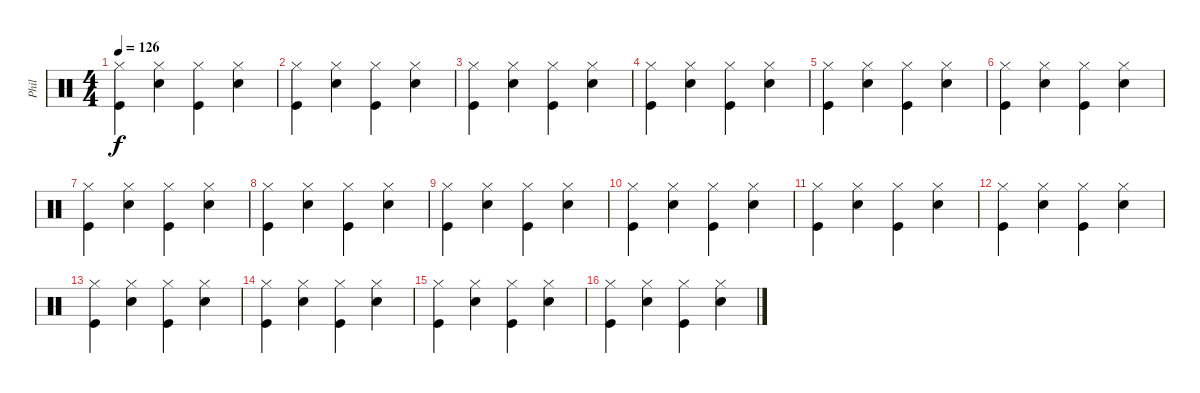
\track ("Phil" "Phil") {instrument percussion}
\staff {score}
\articulation defaults
\ts (4 4)
\tempo 126
\clef neutral
\ks c
("Hi-Hat (closed)" "Kick (hit)").4{dy f} ("Hi-Hat (closed)" "Snare (hit) 2").4 ("Hi-Hat (closed)" "Kick (hit)").4 ("Hi-Hat (closed)" "Snare (hit) 2").4 |
("Hi-Hat (closed)" "Kick (hit)").4 ("Hi-Hat (closed)" "Snare (hit) 2").4 ("Hi-Hat (closed)" "Kick (hit)").4 ("Hi-Hat (closed)" "Snare (hit) 2").4 |
("Hi-Hat (closed)" "Kick (hit)").4 ("Hi-Hat (closed)" "Snare (hit) 2").4 ("Hi-Hat (closed)" "Kick (hit)").4 ("Hi-Hat (closed)" "Snare (hit) 2").4 |
("Hi-Hat (closed)" "Kick (hit)").4 ("Hi-Hat (closed)" "Snare (hit) 2").4 ("Hi-Hat (closed)" "Kick (hit)").4 ("Hi-Hat (closed)" "Snare (hit) 2").4 |
("Hi-Hat (closed)" "Kick (hit)").4 ("Hi-Hat (closed)" "Snare (hit) 2").4 ("Hi-Hat (closed)" "Kick (hit)").4 ("Hi-Hat (closed)" "Snare (hit) 2").4 |
("Hi-Hat (closed)" "Kick (hit)").4 ("Hi-Hat (closed)" "Snare (hit) 2").4 ("Hi-Hat (closed)" "Kick (hit)").4 ("Hi-Hat (closed)" "Snare (hit) 2").4 |
("Hi-Hat (closed)" "Kick (hit)").4 ("Hi-Hat (closed)" "Snare (hit) 2").4 ("Hi-Hat (closed)" "Kick (hit)").4 ("Hi-Hat (closed)" "Snare (hit) 2").4 |
("Hi-Hat (closed)" "Kick (hit)").4 ("Hi-Hat (closed)" "Snare (hit) 2").4 ("Hi-Hat (closed)" "Kick (hit)").4 ("Hi-Hat (closed)" "Snare (hit) 2").4 |
("Hi-Hat (closed)" "Kick (hit)").4 ("Hi-Hat (closed)" "Snare (hit) 2").4 ("Hi-Hat (closed)" "Kick (hit)").4 ("Hi-Hat (closed)" "Snare (hit) 2").4 |
("Hi-Hat (closed)" "Kick (hit)").4 ("Hi-Hat (closed)" "Snare (hit) 2").4 ("Hi-Hat (closed)" "Kick (hit)").4 ("Hi-Hat (closed)" "Snare (hit) 2").4 |
("Hi-Hat (closed)" "Kick (hit)").4 ("Hi-Hat (closed)" "Snare (hit) 2").4 ("Hi-Hat (closed)" "Kick (hit)").4 ("Hi-Hat (closed)" "Snare (hit) 2").4 |
("Hi-Hat (closed)" "Kick (hit)").4 ("Hi-Hat (closed)" "Snare (hit) 2").4 ("Hi-Hat (closed)" "Kick (hit)").4 ("Hi-Hat (closed)" "Snare (hit) 2").4 |
("Hi-Hat (closed)" "Kick (hit)").4 ("Hi-Hat (closed)" "Snare (hit) 2").4 ("Hi-Hat (closed)" "Kick (hit)").4 ("Hi-Hat (closed)" "Snare (hit) 2").4 |
("Hi-Hat (closed)" "Kick (hit)").4 ("Hi-Hat (closed)" "Snare (hit) 2").4 ("Hi-Hat (closed)" "Kick (hit)").4 ("Hi-Hat (closed)" "Snare (hit) 2").4 |
("Hi-Hat (closed)" "Kick (hit)").4 ("Hi-Hat (closed)" "Snare (hit) 2").4 ("Hi-Hat (closed)" "Kick (hit)").4 ("Hi-Hat (closed)" "Snare (hit) 2").4 |
("Hi-Hat (closed)" "Kick (hit)").4 ("Hi-Hat (closed)" "Snare (hit) 2").4 ("Hi-Hat (closed)" "Kick (hit)").4 ("Hi-Hat (closed)" "Snare (hit) 2").4
